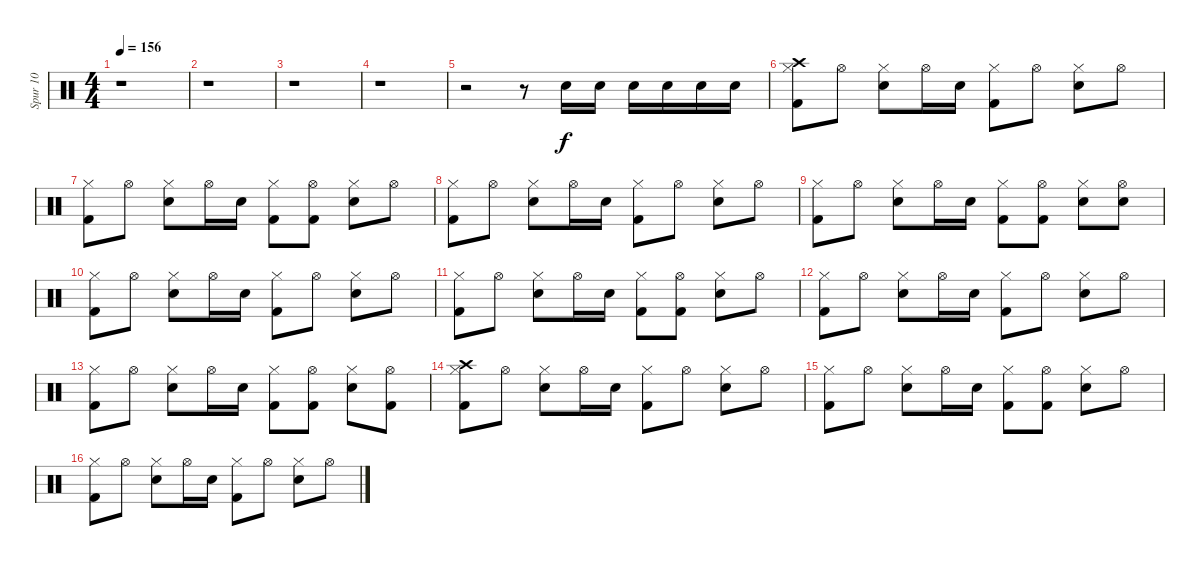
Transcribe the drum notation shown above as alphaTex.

\track ("Spur 10" "Spur 10") {instrument percussion}
\staff {score}
\articulation defaults
\ts (4 4)
\tempo 156
\clef neutral
\ks c
r.1{dy f} |
r.1 |
r.1 |
r.1 |
r.2 r.8 "Electric Snare (hit)".16 "Electric Snare (hit)".16 "Electric Snare (hit)".16 "Electric Snare (hit)".16 "Electric Snare (hit)".16 "Electric Snare (hit)".16 |
("Crash high (hit)" "Hi-Hat (closed)" "Kick (hit) 2").8 "Hi-Hat (open)".8 ("Hi-Hat (closed)" "Electric Snare (hit)").8 "Hi-Hat (open)".16 "Electric Snare (hit)".16 ("Hi-Hat (closed)" "Kick (hit) 2").8 "Hi-Hat (open)".8 ("Hi-Hat (closed)" "Electric Snare (hit)").8 "Hi-Hat (open)".8 |
("Hi-Hat (closed)" "Kick (hit) 2").8 "Hi-Hat (open)".8 ("Hi-Hat (closed)" "Electric Snare (hit)").8 "Hi-Hat (open)".16 "Electric Snare (hit)".16 ("Hi-Hat (closed)" "Kick (hit) 2").8 ("Hi-Hat (open)" "Kick (hit) 2").8 ("Hi-Hat (closed)" "Electric Snare (hit)").8 "Hi-Hat (open)".8 |
("Hi-Hat (closed)" "Kick (hit) 2").8 "Hi-Hat (open)".8 ("Hi-Hat (closed)" "Electric Snare (hit)").8 "Hi-Hat (open)".16 "Electric Snare (hit)".16 ("Hi-Hat (closed)" "Kick (hit) 2").8 "Hi-Hat (open)".8 ("Hi-Hat (closed)" "Electric Snare (hit)").8 "Hi-Hat (open)".8 |
("Hi-Hat (closed)" "Kick (hit) 2").8 "Hi-Hat (open)".8 ("Hi-Hat (closed)" "Electric Snare (hit)").8 "Hi-Hat (open)".16 "Electric Snare (hit)".16 ("Hi-Hat (closed)" "Kick (hit) 2").8 ("Hi-Hat (open)" "Kick (hit) 2").8 ("Hi-Hat (closed)" "Electric Snare (hit)").8 ("Hi-Hat (open)" "Electric Snare (hit)").8 |
("Hi-Hat (closed)" "Kick (hit) 2").8 "Hi-Hat (open)".8 ("Hi-Hat (closed)" "Electric Snare (hit)").8 "Hi-Hat (open)".16 "Electric Snare (hit)".16 ("Hi-Hat (closed)" "Kick (hit) 2").8 "Hi-Hat (open)".8 ("Hi-Hat (closed)" "Electric Snare (hit)").8 "Hi-Hat (open)".8 |
("Hi-Hat (closed)" "Kick (hit) 2").8 "Hi-Hat (open)".8 ("Hi-Hat (closed)" "Electric Snare (hit)").8 "Hi-Hat (open)".16 "Electric Snare (hit)".16 ("Hi-Hat (closed)" "Kick (hit) 2").8 ("Hi-Hat (open)" "Kick (hit) 2").8 ("Hi-Hat (closed)" "Electric Snare (hit)").8 "Hi-Hat (open)".8 |
("Hi-Hat (closed)" "Kick (hit) 2").8 "Hi-Hat (open)".8 ("Hi-Hat (closed)" "Electric Snare (hit)").8 "Hi-Hat (open)".16 "Electric Snare (hit)".16 ("Hi-Hat (closed)" "Kick (hit) 2").8 "Hi-Hat (open)".8 ("Hi-Hat (closed)" "Electric Snare (hit)").8 "Hi-Hat (open)".8 |
("Hi-Hat (closed)" "Kick (hit) 2").8 "Hi-Hat (open)".8 ("Hi-Hat (closed)" "Electric Snare (hit)").8 "Hi-Hat (open)".16 "Electric Snare (hit)".16 ("Hi-Hat (closed)" "Kick (hit) 2").8 ("Hi-Hat (open)" "Kick (hit) 2").8 ("Hi-Hat (closed)" "Electric Snare (hit)").8 ("Hi-Hat (open)" "Kick (hit) 2").8 |
("Crash high (hit)" "Hi-Hat (closed)" "Kick (hit) 2").8 "Hi-Hat (open)".8 ("Hi-Hat (closed)" "Electric Snare (hit)").8 "Hi-Hat (open)".16 "Electric Snare (hit)".16 ("Hi-Hat (closed)" "Kick (hit) 2").8 "Hi-Hat (open)".8 ("Hi-Hat (closed)" "Electric Snare (hit)").8 "Hi-Hat (open)".8 |
("Hi-Hat (closed)" "Kick (hit) 2").8 "Hi-Hat (open)".8 ("Hi-Hat (closed)" "Electric Snare (hit)").8 "Hi-Hat (open)".16 "Electric Snare (hit)".16 ("Hi-Hat (closed)" "Kick (hit) 2").8 ("Hi-Hat (open)" "Kick (hit) 2").8 ("Hi-Hat (closed)" "Electric Snare (hit)").8 "Hi-Hat (open)".8 |
("Hi-Hat (closed)" "Kick (hit) 2").8 "Hi-Hat (open)".8 ("Hi-Hat (closed)" "Electric Snare (hit)").8 "Hi-Hat (open)".16 "Electric Snare (hit)".16 ("Hi-Hat (closed)" "Kick (hit) 2").8 "Hi-Hat (open)".8 ("Hi-Hat (closed)" "Electric Snare (hit)").8 "Hi-Hat (open)".8
